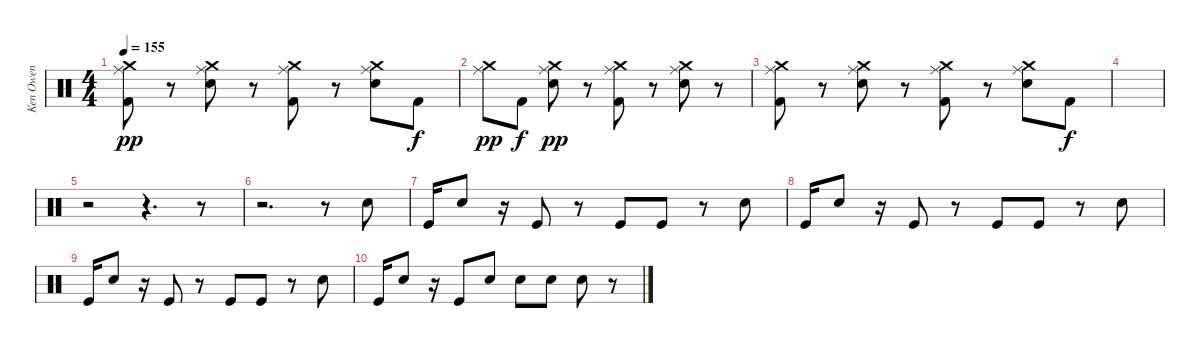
\track ("Ken Owen" "Ken Owen") {instrument percussion}
\staff {score}
\articulation defaults
\ts (4 4)
\tempo 155
\clef neutral
\ks c
("Crash medium (hit)" "Ride (middle)" "Kick (hit) 2").8{dy pp} r.8 ("Crash medium (hit)" "Ride (middle)" "Electric Snare (hit)").8 r.8 ("Crash medium (hit)" "Ride (middle)" "Kick (hit) 2").8 r.8 ("Crash medium (hit)" "Ride (middle)" "Electric Snare (hit)").8 "Kick (hit) 2".8{dy f} |
("Crash medium (hit)" "Ride (middle)").8{dy pp} "Kick (hit) 2".8{dy f} ("Crash medium (hit)" "Ride (middle)" "Electric Snare (hit)").8{dy pp} r.8 ("Crash medium (hit)" "Ride (middle)" "Kick (hit) 2").8 r.8 ("Crash medium (hit)" "Ride (middle)" "Electric Snare (hit)").8 r.8 |
("Crash medium (hit)" "Ride (middle)" "Kick (hit) 2").8 r.8 ("Crash medium (hit)" "Ride (middle)" "Electric Snare (hit)").8 r.8 ("Crash medium (hit)" "Ride (middle)" "Kick (hit) 2").8 r.8 ("Crash medium (hit)" "Ride (middle)" "Electric Snare (hit)").8 "Kick (hit) 2".8{dy f} |
|
r.2 r.4{d} r.8 |
r.2{d} r.8 "Electric Snare (hit)".8 |
"Kick (hit)".16 "Electric Snare (hit)".8 r.16 "Kick (hit)".8 r.8 "Kick (hit)".8 "Kick (hit)".8 r.8 "Electric Snare (hit)".8 |
"Kick (hit)".16 "Electric Snare (hit)".8 r.16 "Kick (hit)".8 r.8 "Kick (hit)".8 "Kick (hit)".8 r.8 "Electric Snare (hit)".8 |
"Kick (hit)".16 "Electric Snare (hit)".8 r.16 "Kick (hit)".8 r.8 "Kick (hit)".8 "Kick (hit)".8 r.8 "Electric Snare (hit)".8 |
"Kick (hit)".16 "Electric Snare (hit)".8 r.16 "Kick (hit)".8 "Electric Snare (hit)".8 "Electric Snare (hit)".8 "Electric Snare (hit)".8 "Electric Snare (hit)".8 r.8
